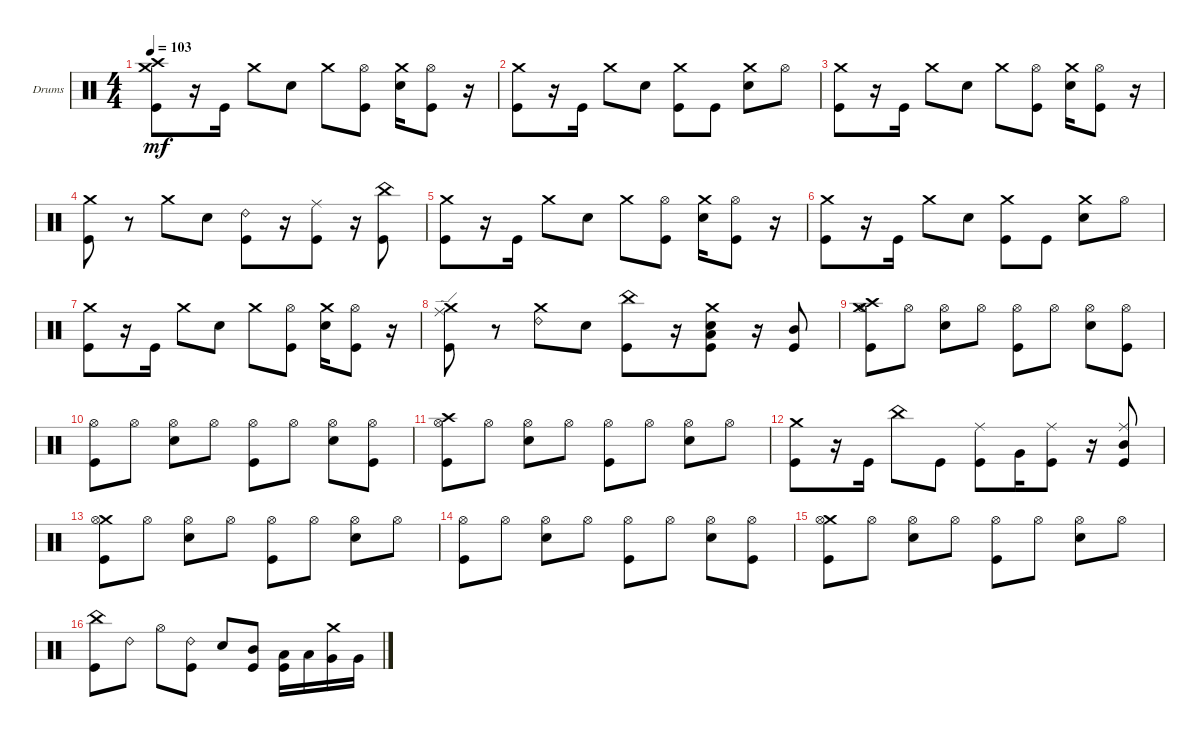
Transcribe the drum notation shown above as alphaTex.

\bracketExtendMode groupsimilarinstruments
\firstSystemTrackNameOrientation horizontal
\otherSystemsTrackNameOrientation horizontal
\track ("Drums" "Drums") {instrument percussion}
\staff {score}
\articulation defaults
\ts (4 4)
\tempo 103
\clef neutral
\ks c
("Crash high (hit)" "Crash medium (hit)" "Kick (hit)").8{dy mf} r.16 "Kick (hit)".16 "Crash medium (hit)".8 "Snare (hit) 2".8 "Crash medium (hit)".8 ("Kick (hit)" "Hi-Hat (open)").8 ("Crash medium (hit)" "Snare (hit) 2").16 ("Kick (hit)" "Hi-Hat (open)").8 r.16 |
("Crash medium (hit)" "Kick (hit)").8 r.16 "Kick (hit)".16 "Crash medium (hit)".8 "Snare (hit) 2".8 ("Crash medium (hit)" "Kick (hit)").8 "Kick (hit)".8 ("Crash medium (hit)" "Snare (hit) 2").8 "Hi-Hat (open)".8 |
("Kick (hit)" "Crash medium (hit)").8 r.16 "Kick (hit)".16 "Crash medium (hit)".8 "Snare (hit) 2".8 "Crash medium (hit)".8 ("Kick (hit)" "Hi-Hat (open)").8 ("Crash medium (hit)" "Snare (hit) 2").16 ("Kick (hit)" "Hi-Hat (open)").8 r.16 |
("Crash medium (hit)" "Kick (hit)").8 r.8 "Crash medium (hit)".8 "Snare (hit) 2".8 ("Ride (bell) 2" "Kick (hit)").8 r.16 ("Kick (hit)" "Ride (middle)").8 r.16 ("Kick (hit)" "China (hit)").8 |
("Kick (hit)" "Crash medium (hit)").8 r.16 "Kick (hit)".16 "Crash medium (hit)".8 "Snare (hit) 2".8 "Crash medium (hit)".8 ("Kick (hit)" "Hi-Hat (open)").8 ("Crash medium (hit)" "Snare (hit) 2").16 ("Kick (hit)" "Hi-Hat (open)").8 r.16 |
("Crash medium (hit)" "Kick (hit)").8 r.16 "Kick (hit)".16 "Crash medium (hit)".8 "Snare (hit) 2".8 ("Crash medium (hit)" "Kick (hit)").8 "Kick (hit)".8 ("Crash medium (hit)" "Snare (hit) 2").8 "Hi-Hat (open)".8 |
("Kick (hit)" "Crash medium (hit)").8 r.16 "Kick (hit)".16 "Crash medium (hit)".8 "Snare (hit) 2".8 "Crash medium (hit)".8 ("Kick (hit)" "Hi-Hat (open)").8 ("Snare (hit) 2" "Crash medium (hit)").16 ("Hi-Hat (open)" "Kick (hit)").8 r.16 |
("Crash medium (hit)" "Kick (hit)" "Ride (edge)").8 r.8 ("Crash medium (hit)" "Ride (bell) 2").8 "Snare (hit) 2".8 ("China (hit)" "Kick (hit)").8 r.16 ("Snare (hit) 2" "Kick (hit)" "Crash medium (hit)" "Low Tom (hit)").8 r.16 ("Kick (hit)" "Mid Tom (hit)").8 |
("Crash high (hit)" "Crash medium (hit)" "Hi-Hat (open)" "Kick (hit)").8 "Hi-Hat (open)".8 ("Snare (hit) 2" "Hi-Hat (open)").8 "Hi-Hat (open)".8 ("Kick (hit)" "Hi-Hat (open)").8 "Hi-Hat (open)".8 ("Snare (hit) 2" "Hi-Hat (open)").8 ("Kick (hit)" "Hi-Hat (open)").8 |
("Kick (hit)" "Hi-Hat (open)").8 "Hi-Hat (open)".8 ("Snare (hit) 2" "Hi-Hat (open)").8 "Hi-Hat (open)".8 ("Kick (hit)" "Hi-Hat (open)").8 "Hi-Hat (open)".8 ("Snare (hit) 2" "Hi-Hat (open)").8 ("Kick (hit)" "Hi-Hat (open)").8 |
("Crash high (hit)" "Kick (hit)" "Hi-Hat (open)").8 "Hi-Hat (open)".8 ("Snare (hit) 2" "Hi-Hat (open)").8 "Hi-Hat (open)".8 ("Kick (hit)" "Hi-Hat (open)").8 "Hi-Hat (open)".8 ("Snare (hit) 2" "Hi-Hat (open)").8 "Hi-Hat (open)".8 |
("Kick (hit)" "Crash medium (hit)").8 r.16 "Kick (hit)".16 "China (hit)".8 "Kick (hit)".8 ("Ride (middle)" "Kick (hit)").8 "Very Low Tom (hit)".16 ("Kick (hit)" "Ride (middle)").8 r.16 ("Mid Tom (hit)" "Kick (hit)" "Ride (middle)").8 |
("Crash medium (hit)" "Kick (hit)" "Hi-Hat (open)").8 "Hi-Hat (open)".8 ("Snare (hit) 2" "Hi-Hat (open)").8 "Hi-Hat (open)".8 ("Kick (hit)" "Hi-Hat (open)").8 "Hi-Hat (open)".8 ("Snare (hit) 2" "Hi-Hat (open)").8 "Hi-Hat (open)".8 |
("Kick (hit)" "Hi-Hat (open)").8 "Hi-Hat (open)".8 ("Snare (hit) 2" "Hi-Hat (open)").8 "Hi-Hat (open)".8 ("Kick (hit)" "Hi-Hat (open)").8 "Hi-Hat (open)".8 ("Snare (hit) 2" "Hi-Hat (open)").8 ("Kick (hit)" "Hi-Hat (open)").8 |
("Crash medium (hit)" "Kick (hit)" "Hi-Hat (open)").8 "Hi-Hat (open)".8 ("Snare (hit) 2" "Hi-Hat (open)").8 "Hi-Hat (open)".8 ("Kick (hit)" "Hi-Hat (open)").8 "Hi-Hat (open)".8 ("Snare (hit) 2" "Hi-Hat (open)").8 "Hi-Hat (open)".8 |
("China (hit)" "Kick (hit)").8 "Ride (bell) 2".8 "Hi-Hat (open)".8 ("Ride (bell) 2" "Kick (hit)").8 "Snare (hit) 2".8 ("Kick (hit)" "Mid Tom (hit)").8 ("Low Tom (hit)" "Kick (hit)").16 "Low Tom (hit)".16 ("Very Low Tom (hit)" "Crash medium (hit)").16 "Very Low Tom (hit)".16
